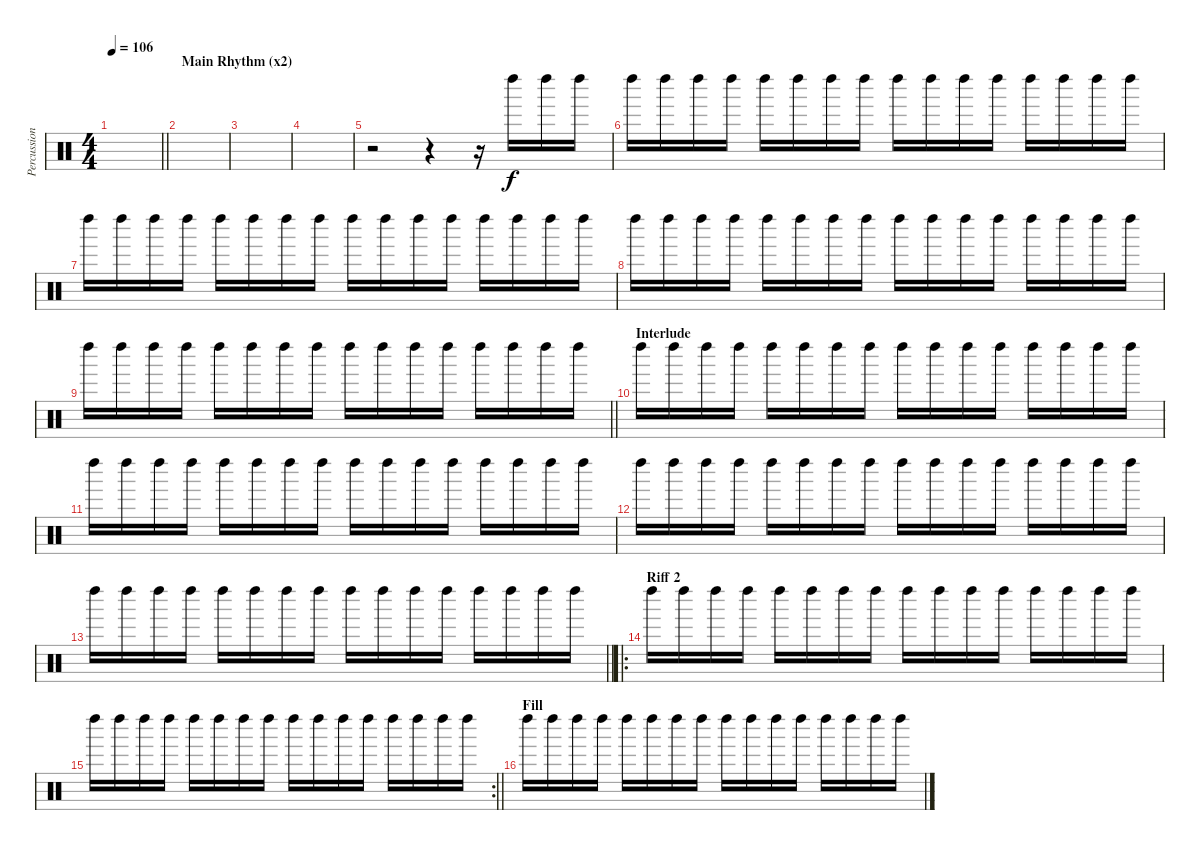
\track ("Percussion 1" "Percussion") {instrument percussion}
\staff
\articulation defaults
\ts (4 4)
\tempo 106
\clef neutral
\barLineRight lightlight
\ks c
|
\section ("" "Main Rhythm (x2)")
|
|
|
r.2 r.4 r.16 "Left Maraca (hit)".16 "Left Maraca (hit)".16 "Left Maraca (hit)".16 |
"Left Maraca (hit)".16 "Left Maraca (hit)".16 "Left Maraca (hit)".16 "Left Maraca (hit)".16 "Left Maraca (hit)".16 "Left Maraca (hit)".16 "Left Maraca (hit)".16 "Left Maraca (hit)".16 "Left Maraca (hit)".16 "Left Maraca (hit)".16 "Left Maraca (hit)".16 "Left Maraca (hit)".16 "Left Maraca (hit)".16 "Left Maraca (hit)".16 "Left Maraca (hit)".16 "Left Maraca (hit)".16 |
"Left Maraca (hit)".16 "Left Maraca (hit)".16 "Left Maraca (hit)".16 "Left Maraca (hit)".16 "Left Maraca (hit)".16 "Left Maraca (hit)".16 "Left Maraca (hit)".16 "Left Maraca (hit)".16 "Left Maraca (hit)".16 "Left Maraca (hit)".16 "Left Maraca (hit)".16 "Left Maraca (hit)".16 "Left Maraca (hit)".16 "Left Maraca (hit)".16 "Left Maraca (hit)".16 "Left Maraca (hit)".16 |
"Left Maraca (hit)".16 "Left Maraca (hit)".16 "Left Maraca (hit)".16 "Left Maraca (hit)".16 "Left Maraca (hit)".16 "Left Maraca (hit)".16 "Left Maraca (hit)".16 "Left Maraca (hit)".16 "Left Maraca (hit)".16 "Left Maraca (hit)".16 "Left Maraca (hit)".16 "Left Maraca (hit)".16 "Left Maraca (hit)".16 "Left Maraca (hit)".16 "Left Maraca (hit)".16 "Left Maraca (hit)".16 |
\barLineRight lightlight "Left Maraca (hit)".16 "Left Maraca (hit)".16 "Left Maraca (hit)".16 "Left Maraca (hit)".16 "Left Maraca (hit)".16 "Left Maraca (hit)".16 "Left Maraca (hit)".16 "Left Maraca (hit)".16 "Left Maraca (hit)".16 "Left Maraca (hit)".16 "Left Maraca (hit)".16 "Left Maraca (hit)".16 "Left Maraca (hit)".16 "Left Maraca (hit)".16 "Left Maraca (hit)".16 "Left Maraca (hit)".16
|
\section ("" "Interlude")
"Left Maraca (hit)".16 "Left Maraca (hit)".16 "Left Maraca (hit)".16 "Left Maraca (hit)".16 "Left Maraca (hit)".16 "Left Maraca (hit)".16 "Left Maraca (hit)".16 "Left Maraca (hit)".16 "Left Maraca (hit)".16 "Left Maraca (hit)".16 "Left Maraca (hit)".16 "Left Maraca (hit)".16 "Left Maraca (hit)".16 "Left Maraca (hit)".16 "Left Maraca (hit)".16 "Left Maraca (hit)".16 |
"Left Maraca (hit)".16 "Left Maraca (hit)".16 "Left Maraca (hit)".16 "Left Maraca (hit)".16 "Left Maraca (hit)".16 "Left Maraca (hit)".16 "Left Maraca (hit)".16 "Left Maraca (hit)".16 "Left Maraca (hit)".16 "Left Maraca (hit)".16 "Left Maraca (hit)".16 "Left Maraca (hit)".16 "Left Maraca (hit)".16 "Left Maraca (hit)".16 "Left Maraca (hit)".16 "Left Maraca (hit)".16 |
"Left Maraca (hit)".16 "Left Maraca (hit)".16 "Left Maraca (hit)".16 "Left Maraca (hit)".16 "Left Maraca (hit)".16 "Left Maraca (hit)".16 "Left Maraca (hit)".16 "Left Maraca (hit)".16 "Left Maraca (hit)".16 "Left Maraca (hit)".16 "Left Maraca (hit)".16 "Left Maraca (hit)".16 "Left Maraca (hit)".16 "Left Maraca (hit)".16 "Left Maraca (hit)".16 "Left Maraca (hit)".16 |
\barLineRight lightlight "Left Maraca (hit)".16 "Left Maraca (hit)".16 "Left Maraca (hit)".16 "Left Maraca (hit)".16 "Left Maraca (hit)".16 "Left Maraca (hit)".16 "Left Maraca (hit)".16 "Left Maraca (hit)".16 "Left Maraca (hit)".16 "Left Maraca (hit)".16 "Left Maraca (hit)".16 "Left Maraca (hit)".16 "Left Maraca (hit)".16 "Left Maraca (hit)".16 "Left Maraca (hit)".16 "Left Maraca (hit)".16
|
\ro
\section ("" "Riff 2")
"Left Maraca (hit)".16 "Left Maraca (hit)".16 "Left Maraca (hit)".16 "Left Maraca (hit)".16 "Left Maraca (hit)".16 "Left Maraca (hit)".16 "Left Maraca (hit)".16 "Left Maraca (hit)".16 "Left Maraca (hit)".16 "Left Maraca (hit)".16 "Left Maraca (hit)".16 "Left Maraca (hit)".16 "Left Maraca (hit)".16 "Left Maraca (hit)".16 "Left Maraca (hit)".16 "Left Maraca (hit)".16 |
\rc 2
\barLineRight lightlight "Left Maraca (hit)".16 "Left Maraca (hit)".16 "Left Maraca (hit)".16 "Left Maraca (hit)".16 "Left Maraca (hit)".16 "Left Maraca (hit)".16 "Left Maraca (hit)".16 "Left Maraca (hit)".16 "Left Maraca (hit)".16 "Left Maraca (hit)".16 "Left Maraca (hit)".16 "Left Maraca (hit)".16 "Left Maraca (hit)".16 "Left Maraca (hit)".16 "Left Maraca (hit)".16 "Left Maraca (hit)".16
|
\section ("" "Fill")
"Left Maraca (hit)".16 "Left Maraca (hit)".16 "Left Maraca (hit)".16 "Left Maraca (hit)".16 "Left Maraca (hit)".16 "Left Maraca (hit)".16 "Left Maraca (hit)".16 "Left Maraca (hit)".16 "Left Maraca (hit)".16 "Left Maraca (hit)".16 "Left Maraca (hit)".16 "Left Maraca (hit)".16 "Left Maraca (hit)".16 "Left Maraca (hit)".16 "Left Maraca (hit)".16 "Left Maraca (hit)".16
